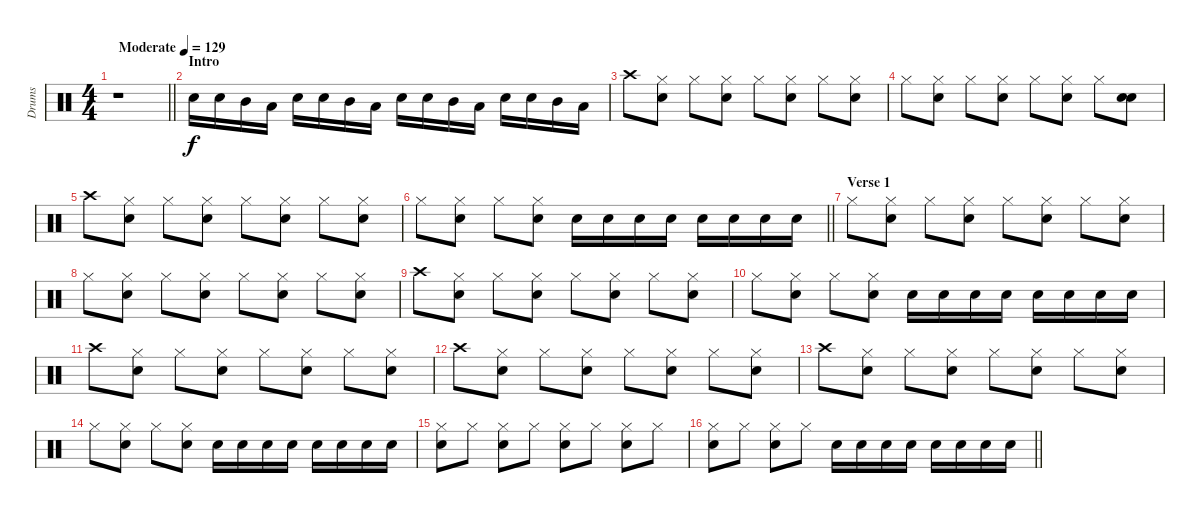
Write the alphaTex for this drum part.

\track ("Drums" "Drums") {instrument percussion}
\staff {score}
\articulation defaults
\ts (4 4)
\tempo (129 "Moderate")
\clef neutral
\barLineRight lightlight
\ks c
r.1{dy f} |
\section ("" "Intro")
"Electric Snare (hit)".16 "Electric Snare (hit)".16 "Mid Tom (hit)".16 "Low Tom (hit)".16 "Electric Snare (hit)".16 "Electric Snare (hit)".16 "Mid Tom (hit)".16 "Low Tom (hit)".16 "Electric Snare (hit)".16 "Electric Snare (hit)".16 "Mid Tom (hit)".16 "Low Tom (hit)".16 "Electric Snare (hit)".16 "Electric Snare (hit)".16 "Mid Tom (hit)".16 "Low Tom (hit)".16 |
"Crash high (hit)".8 ("Hi-Hat (closed)" "Electric Snare (hit)").8 "Hi-Hat (closed)".8 ("Hi-Hat (closed)" "Electric Snare (hit)").8 "Hi-Hat (closed)".8 ("Hi-Hat (closed)" "Electric Snare (hit)").8 "Hi-Hat (closed)".8 ("Hi-Hat (closed)" "Electric Snare (hit)").8 |
"Hi-Hat (closed)".8 ("Hi-Hat (closed)" "Electric Snare (hit)").8 "Hi-Hat (closed)".8 ("Hi-Hat (closed)" "Electric Snare (hit)").8 "Hi-Hat (closed)".8 ("Hi-Hat (closed)" "Electric Snare (hit)").8 "Hi-Hat (closed)".8 ("Electric Snare (hit)" "Electric Snare (hit)").8 |
"Crash high (hit)".8 ("Hi-Hat (closed)" "Electric Snare (hit)").8 "Hi-Hat (closed)".8 ("Hi-Hat (closed)" "Electric Snare (hit)").8 "Hi-Hat (closed)".8 ("Hi-Hat (closed)" "Electric Snare (hit)").8 "Hi-Hat (closed)".8 ("Hi-Hat (closed)" "Electric Snare (hit)").8 |
\barLineRight lightlight "Hi-Hat (closed)".8
("Hi-Hat (closed)" "Electric Snare (hit)").8 "Hi-Hat (closed)".8 ("Hi-Hat (closed)" "Electric Snare (hit)").8 "Electric Snare (hit)".16 "Electric Snare (hit)".16 "Electric Snare (hit)".16 "Electric Snare (hit)".16 "Electric Snare (hit)".16 "Electric Snare (hit)".16 "Electric Snare (hit)".16 "Electric Snare (hit)".16 |
\section ("" "Verse 1")
"Hi-Hat (closed)".8 ("Hi-Hat (closed)" "Electric Snare (hit)").8 "Hi-Hat (closed)".8 ("Hi-Hat (closed)" "Electric Snare (hit)").8 "Hi-Hat (closed)".8 ("Hi-Hat (closed)" "Electric Snare (hit)").8 "Hi-Hat (closed)".8 ("Hi-Hat (closed)" "Electric Snare (hit)").8 |
"Hi-Hat (closed)".8 ("Hi-Hat (closed)" "Electric Snare (hit)").8 "Hi-Hat (closed)".8 ("Hi-Hat (closed)" "Electric Snare (hit)").8 "Hi-Hat (closed)".8 ("Hi-Hat (closed)" "Electric Snare (hit)").8 "Hi-Hat (closed)".8 ("Hi-Hat (closed)" "Electric Snare (hit)").8 |
"Crash high (hit)".8 ("Hi-Hat (closed)" "Electric Snare (hit)").8 "Hi-Hat (closed)".8 ("Hi-Hat (closed)" "Electric Snare (hit)").8 "Hi-Hat (closed)".8 ("Hi-Hat (closed)" "Electric Snare (hit)").8 "Hi-Hat (closed)".8 ("Hi-Hat (closed)" "Electric Snare (hit)").8 |
"Hi-Hat (closed)".8 ("Hi-Hat (closed)" "Electric Snare (hit)").8 "Hi-Hat (closed)".8 ("Hi-Hat (closed)" "Electric Snare (hit)").8 "Electric Snare (hit)".16 "Electric Snare (hit)".16 "Electric Snare (hit)".16 "Electric Snare (hit)".16 "Electric Snare (hit)".16 "Electric Snare (hit)".16 "Electric Snare (hit)".16 "Electric Snare (hit)".16 |
"Crash high (hit)".8 ("Hi-Hat (closed)" "Electric Snare (hit)").8 "Hi-Hat (closed)".8 ("Hi-Hat (closed)" "Electric Snare (hit)").8 "Hi-Hat (closed)".8 ("Hi-Hat (closed)" "Electric Snare (hit)").8 "Hi-Hat (closed)".8 ("Hi-Hat (closed)" "Electric Snare (hit)").8 |
"Crash high (hit)".8 ("Hi-Hat (closed)" "Electric Snare (hit)").8 "Hi-Hat (closed)".8 ("Hi-Hat (closed)" "Electric Snare (hit)").8 "Hi-Hat (closed)".8 ("Hi-Hat (closed)" "Electric Snare (hit)").8 "Hi-Hat (closed)".8 ("Hi-Hat (closed)" "Electric Snare (hit)").8 |
"Crash high (hit)".8 ("Hi-Hat (closed)" "Electric Snare (hit)").8 "Hi-Hat (closed)".8 ("Hi-Hat (closed)" "Electric Snare (hit)").8 "Hi-Hat (closed)".8 ("Hi-Hat (closed)" "Electric Snare (hit)").8 "Hi-Hat (closed)".8 ("Hi-Hat (closed)" "Electric Snare (hit)").8 |
"Hi-Hat (closed)".8 ("Hi-Hat (closed)" "Electric Snare (hit)").8 "Hi-Hat (closed)".8 ("Hi-Hat (closed)" "Electric Snare (hit)").8 "Electric Snare (hit)".16 "Electric Snare (hit)".16 "Electric Snare (hit)".16 "Electric Snare (hit)".16 "Electric Snare (hit)".16 "Electric Snare (hit)".16 "Electric Snare (hit)".16 "Electric Snare (hit)".16 |
("Hi-Hat (closed)" "Electric Snare (hit)").8 "Hi-Hat (closed)".8 ("Hi-Hat (closed)" "Electric Snare (hit)").8 "Hi-Hat (closed)".8 ("Hi-Hat (closed)" "Electric Snare (hit)").8 "Hi-Hat (closed)".8 ("Hi-Hat (closed)" "Electric Snare (hit)").8 "Hi-Hat (closed)".8 |
\barLineRight lightlight
("Hi-Hat (closed)" "Electric Snare (hit)").8 "Hi-Hat (closed)".8 ("Hi-Hat (closed)" "Electric Snare (hit)").8 "Hi-Hat (closed)".8 "Electric Snare (hit)".16 "Electric Snare (hit)".16 "Electric Snare (hit)".16 "Electric Snare (hit)".16 "Electric Snare (hit)".16 "Electric Snare (hit)".16 "Electric Snare (hit)".16 "Electric Snare (hit)".16
